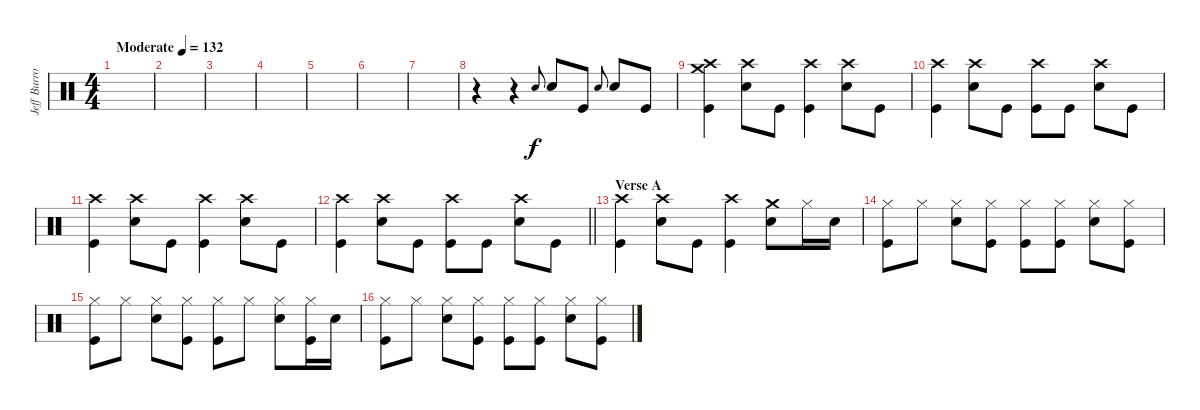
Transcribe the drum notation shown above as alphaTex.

\track ("Jeff Burrows (Percussion)" "Jeff Burro") {instrument percussion}
\staff {score}
\articulation defaults
\ts (4 4)
\tempo (132 "Moderate")
\clef neutral
\ks c
|
|
|
|
|
|
|
r.4 r.4 "Snare (hit) 2".8{gr onbeat} "Snare (hit) 2".8 "Kick (hit)".8 "Snare (hit) 2".8{gr onbeat} "Snare (hit) 2".8 "Kick (hit)".8 |
("Crash medium (hit)" "Crash high (hit)" "Kick (hit)").4 ("Crash high (hit)" "Snare (hit) 2").8 "Kick (hit)".8 ("Crash high (hit)" "Kick (hit)").4 ("Crash high (hit)" "Snare (hit) 2").8 "Kick (hit)".8 |
("Crash high (hit)" "Kick (hit)").4 ("Crash high (hit)" "Snare (hit) 2").8 "Kick (hit)".8 ("Crash high (hit)" "Kick (hit)").8 "Kick (hit)".8 ("Crash high (hit)" "Snare (hit) 2").8 "Kick (hit)".8 |
("Crash high (hit)" "Kick (hit)").4 ("Crash high (hit)" "Snare (hit) 2").8 "Kick (hit)".8 ("Crash high (hit)" "Kick (hit)").4 ("Crash high (hit)" "Snare (hit) 2").8 "Kick (hit)".8 |
\barLineRight lightlight
("Crash high (hit)" "Kick (hit)").4 ("Crash high (hit)" "Snare (hit) 2").8 "Kick (hit)".8 ("Crash high (hit)" "Kick (hit)").8 "Kick (hit)".8 ("Crash high (hit)" "Snare (hit) 2").8 "Kick (hit)".8 |
\section ("" "Verse A")
("Crash high (hit)" "Kick (hit)").4 ("Crash high (hit)" "Snare (hit) 2").8 "Kick (hit)".8 ("Crash high (hit)" "Kick (hit)").4 ("Crash medium (hit)" "Snare (hit) 2").8 "Hi-Hat (closed)".16 "Snare (hit) 2".16 |
("Hi-Hat (closed)" "Kick (hit)").8 "Hi-Hat (closed)".8 ("Hi-Hat (closed)" "Snare (hit) 2").8 ("Hi-Hat (closed)" "Kick (hit)").8 ("Hi-Hat (closed)" "Kick (hit)").8 ("Hi-Hat (closed)" "Kick (hit)").8 ("Hi-Hat (closed)" "Snare (hit) 2").8 ("Hi-Hat (closed)" "Kick (hit)").8 |
("Hi-Hat (closed)" "Kick (hit)").8 "Hi-Hat (closed)".8 ("Hi-Hat (closed)" "Snare (hit) 2").8 ("Hi-Hat (closed)" "Kick (hit)").8 ("Hi-Hat (closed)" "Kick (hit)").8 "Hi-Hat (closed)".8 ("Hi-Hat (closed)" "Snare (hit) 2").8 ("Hi-Hat (closed)" "Kick (hit)").16 "Snare (hit) 2".16 |
("Hi-Hat (closed)" "Kick (hit)").8 "Hi-Hat (closed)".8 ("Hi-Hat (closed)" "Snare (hit) 2").8 ("Hi-Hat (closed)" "Kick (hit)").8 ("Hi-Hat (closed)" "Kick (hit)").8 ("Hi-Hat (closed)" "Kick (hit)").8 ("Hi-Hat (closed)" "Snare (hit) 2").8 ("Hi-Hat (closed)" "Kick (hit)").8
